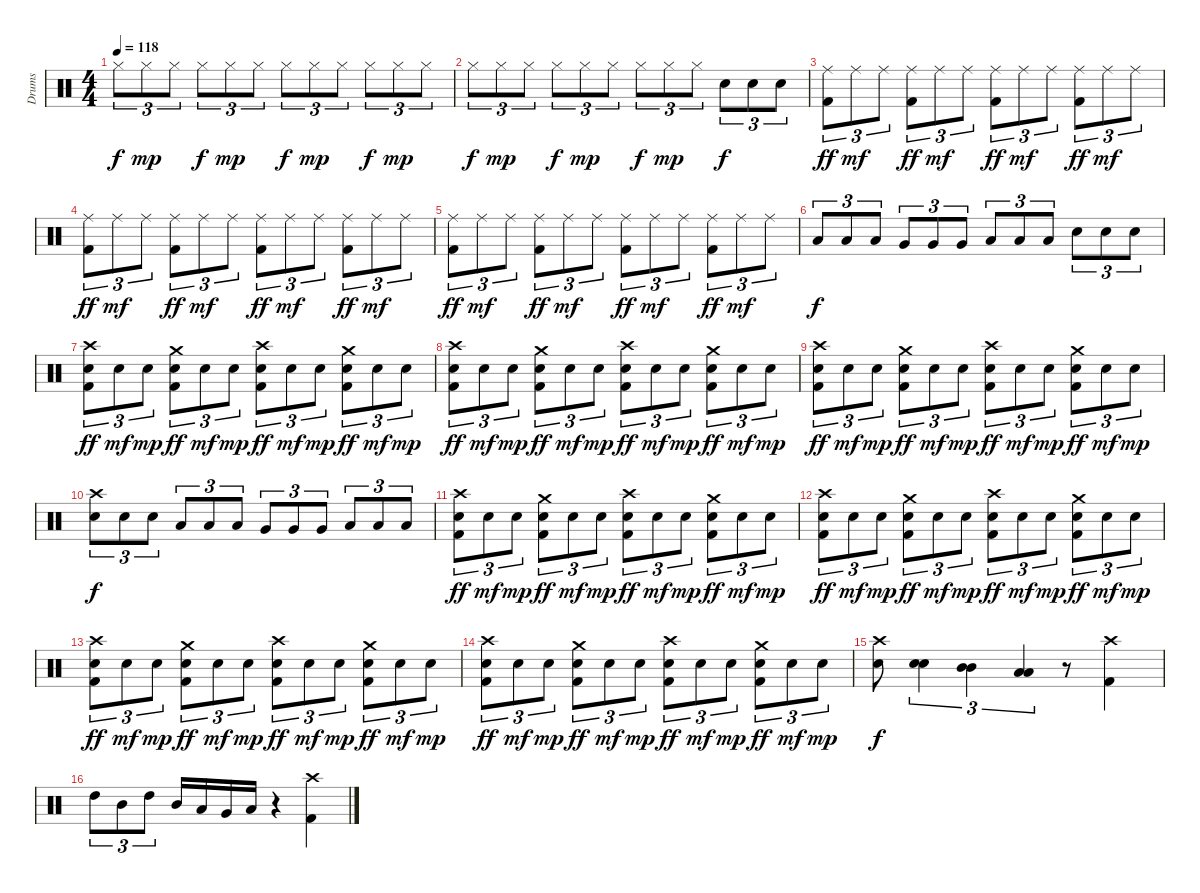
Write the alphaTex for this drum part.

\track ("Drums" "Drums") {instrument percussion}
\staff {score}
\articulation defaults
\ts (4 4)
\tempo 118
\clef neutral
\ks c "Hi-Hat (closed)".8{tu (3 2) dy f} "Hi-Hat (closed)".8{tu (3 2) dy mp} "Hi-Hat (closed)".8{tu (3 2)} "Hi-Hat (closed)".8{tu (3 2) dy f} "Hi-Hat (closed)".8{tu (3 2) dy mp} "Hi-Hat (closed)".8{tu (3 2)} "Hi-Hat (closed)".8{tu (3 2) dy f} "Hi-Hat (closed)".8{tu (3 2) dy mp} "Hi-Hat (closed)".8{tu (3 2)} "Hi-Hat (closed)".8{tu (3 2) dy f} "Hi-Hat (closed)".8{tu (3 2) dy mp} "Hi-Hat (closed)".8{tu (3 2)}
|
"Hi-Hat (closed)".8{tu (3 2) dy f} "Hi-Hat (closed)".8{tu (3 2) dy mp} "Hi-Hat (closed)".8{tu (3 2)} "Hi-Hat (closed)".8{tu (3 2) dy f} "Hi-Hat (closed)".8{tu (3 2) dy mp} "Hi-Hat (closed)".8{tu (3 2)} "Hi-Hat (closed)".8{tu (3 2) dy f} "Hi-Hat (closed)".8{tu (3 2) dy mp} "Hi-Hat (closed)".8{tu (3 2)} "Snare (hit) 2".8{tu (3 2) dy f} "Snare (hit) 2".8{tu (3 2)} "Snare (hit) 2".8{tu (3 2)} |
("Ride (middle)" "Kick (hit) 2").8{tu (3 2) dy ff} "Ride (middle)".8{tu (3 2) dy mf} "Ride (middle)".8{tu (3 2)} ("Ride (middle)" "Kick (hit) 2").8{tu (3 2) dy ff} "Ride (middle)".8{tu (3 2) dy mf} "Ride (middle)".8{tu (3 2)} ("Ride (middle)" "Kick (hit) 2").8{tu (3 2) dy ff} "Ride (middle)".8{tu (3 2) dy mf} "Ride (middle)".8{tu (3 2)} ("Ride (middle)" "Kick (hit) 2").8{tu (3 2) dy ff} "Ride (middle)".8{tu (3 2) dy mf} "Ride (middle)".8{tu (3 2)} |
("Ride (middle)" "Kick (hit) 2").8{tu (3 2) dy ff} "Ride (middle)".8{tu (3 2) dy mf} "Ride (middle)".8{tu (3 2)} ("Ride (middle)" "Kick (hit) 2").8{tu (3 2) dy ff} "Ride (middle)".8{tu (3 2) dy mf} "Ride (middle)".8{tu (3 2)} ("Ride (middle)" "Kick (hit) 2").8{tu (3 2) dy ff} "Ride (middle)".8{tu (3 2) dy mf} "Ride (middle)".8{tu (3 2)} ("Ride (middle)" "Kick (hit) 2").8{tu (3 2) dy ff} "Ride (middle)".8{tu (3 2) dy mf} "Ride (middle)".8{tu (3 2)} |
("Ride (middle)" "Kick (hit) 2").8{tu (3 2) dy ff} "Ride (middle)".8{tu (3 2) dy mf} "Ride (middle)".8{tu (3 2)} ("Ride (middle)" "Kick (hit) 2").8{tu (3 2) dy ff} "Ride (middle)".8{tu (3 2) dy mf} "Ride (middle)".8{tu (3 2)} ("Ride (middle)" "Kick (hit) 2").8{tu (3 2) dy ff} "Ride (middle)".8{tu (3 2) dy mf} "Ride (middle)".8{tu (3 2)} ("Ride (middle)" "Kick (hit) 2").8{tu (3 2) dy ff} "Ride (middle)".8{tu (3 2) dy mf} "Ride (middle)".8{tu (3 2)} |
"Low Tom (hit)".8{tu (3 2) dy f} "Low Tom (hit)".8{tu (3 2)} "Low Tom (hit)".8{tu (3 2)} "Very Low Tom (hit)".8{tu (3 2)} "Very Low Tom (hit)".8{tu (3 2)} "Very Low Tom (hit)".8{tu (3 2)} "Low Floor Tom (hit)".8{tu (3 2)} "Low Floor Tom (hit)".8{tu (3 2)} "Low Floor Tom (hit)".8{tu (3 2)} "Snare (hit) 2".8{tu (3 2)} "Snare (hit) 2".8{tu (3 2)} "Snare (hit) 2".8{tu (3 2)} |
("Crash high (hit)" "Snare (hit) 2" "Kick (hit) 2").8{tu (3 2) dy ff} "Snare (hit) 2".8{tu (3 2) dy mf} "Snare (hit) 2".8{tu (3 2) dy mp} ("Crash medium (hit)" "Snare (hit) 2" "Kick (hit) 2").8{tu (3 2) dy ff} "Snare (hit) 2".8{tu (3 2) dy mf} "Snare (hit) 2".8{tu (3 2) dy mp} ("Crash high (hit)" "Snare (hit) 2" "Kick (hit) 2").8{tu (3 2) dy ff} "Snare (hit) 2".8{tu (3 2) dy mf} "Snare (hit) 2".8{tu (3 2) dy mp} ("Crash medium (hit)" "Snare (hit) 2" "Kick (hit) 2").8{tu (3 2) dy ff} "Snare (hit) 2".8{tu (3 2) dy mf} "Snare (hit) 2".8{tu (3 2) dy mp} |
("Crash high (hit)" "Snare (hit) 2" "Kick (hit) 2").8{tu (3 2) dy ff} "Snare (hit) 2".8{tu (3 2) dy mf} "Snare (hit) 2".8{tu (3 2) dy mp} ("Crash medium (hit)" "Snare (hit) 2" "Kick (hit) 2").8{tu (3 2) dy ff} "Snare (hit) 2".8{tu (3 2) dy mf} "Snare (hit) 2".8{tu (3 2) dy mp} ("Crash high (hit)" "Snare (hit) 2" "Kick (hit) 2").8{tu (3 2) dy ff} "Snare (hit) 2".8{tu (3 2) dy mf} "Snare (hit) 2".8{tu (3 2) dy mp} ("Crash medium (hit)" "Snare (hit) 2" "Kick (hit) 2").8{tu (3 2) dy ff} "Snare (hit) 2".8{tu (3 2) dy mf} "Snare (hit) 2".8{tu (3 2) dy mp} |
("Crash high (hit)" "Snare (hit) 2" "Kick (hit) 2").8{tu (3 2) dy ff} "Snare (hit) 2".8{tu (3 2) dy mf} "Snare (hit) 2".8{tu (3 2) dy mp} ("Crash medium (hit)" "Snare (hit) 2" "Kick (hit) 2").8{tu (3 2) dy ff} "Snare (hit) 2".8{tu (3 2) dy mf} "Snare (hit) 2".8{tu (3 2) dy mp} ("Crash high (hit)" "Snare (hit) 2" "Kick (hit) 2").8{tu (3 2) dy ff} "Snare (hit) 2".8{tu (3 2) dy mf} "Snare (hit) 2".8{tu (3 2) dy mp} ("Crash medium (hit)" "Snare (hit) 2" "Kick (hit) 2").8{tu (3 2) dy ff} "Snare (hit) 2".8{tu (3 2) dy mf} "Snare (hit) 2".8{tu (3 2) dy mp} |
("Crash high (hit)" "Snare (hit) 2").8{tu (3 2) dy f} "Snare (hit) 2".8{tu (3 2)} "Snare (hit) 2".8{tu (3 2)} "Low Tom (hit)".8{tu (3 2)} "Low Tom (hit)".8{tu (3 2)} "Low Tom (hit)".8{tu (3 2)} "Very Low Tom (hit)".8{tu (3 2)} "Very Low Tom (hit)".8{tu (3 2)} "Very Low Tom (hit)".8{tu (3 2)} "Low Floor Tom (hit)".8{tu (3 2)} "Low Floor Tom (hit)".8{tu (3 2)} "Low Floor Tom (hit)".8{tu (3 2)} |
("Crash high (hit)" "Snare (hit) 2" "Kick (hit) 2").8{tu (3 2) dy ff} "Snare (hit) 2".8{tu (3 2) dy mf} "Snare (hit) 2".8{tu (3 2) dy mp} ("Crash medium (hit)" "Snare (hit) 2" "Kick (hit) 2").8{tu (3 2) dy ff} "Snare (hit) 2".8{tu (3 2) dy mf} "Snare (hit) 2".8{tu (3 2) dy mp} ("Crash high (hit)" "Snare (hit) 2" "Kick (hit) 2").8{tu (3 2) dy ff} "Snare (hit) 2".8{tu (3 2) dy mf} "Snare (hit) 2".8{tu (3 2) dy mp} ("Crash medium (hit)" "Snare (hit) 2" "Kick (hit) 2").8{tu (3 2) dy ff} "Snare (hit) 2".8{tu (3 2) dy mf} "Snare (hit) 2".8{tu (3 2) dy mp} |
("Crash high (hit)" "Snare (hit) 2" "Kick (hit) 2").8{tu (3 2) dy ff} "Snare (hit) 2".8{tu (3 2) dy mf} "Snare (hit) 2".8{tu (3 2) dy mp} ("Crash medium (hit)" "Snare (hit) 2" "Kick (hit) 2").8{tu (3 2) dy ff} "Snare (hit) 2".8{tu (3 2) dy mf} "Snare (hit) 2".8{tu (3 2) dy mp} ("Crash high (hit)" "Snare (hit) 2" "Kick (hit) 2").8{tu (3 2) dy ff} "Snare (hit) 2".8{tu (3 2) dy mf} "Snare (hit) 2".8{tu (3 2) dy mp} ("Crash medium (hit)" "Snare (hit) 2" "Kick (hit) 2").8{tu (3 2) dy ff} "Snare (hit) 2".8{tu (3 2) dy mf} "Snare (hit) 2".8{tu (3 2) dy mp} |
("Crash high (hit)" "Snare (hit) 2" "Kick (hit) 2").8{tu (3 2) dy ff} "Snare (hit) 2".8{tu (3 2) dy mf} "Snare (hit) 2".8{tu (3 2) dy mp} ("Crash medium (hit)" "Snare (hit) 2" "Kick (hit) 2").8{tu (3 2) dy ff} "Snare (hit) 2".8{tu (3 2) dy mf} "Snare (hit) 2".8{tu (3 2) dy mp} ("Crash high (hit)" "Snare (hit) 2" "Kick (hit) 2").8{tu (3 2) dy ff} "Snare (hit) 2".8{tu (3 2) dy mf} "Snare (hit) 2".8{tu (3 2) dy mp} ("Crash medium (hit)" "Snare (hit) 2" "Kick (hit) 2").8{tu (3 2) dy ff} "Snare (hit) 2".8{tu (3 2) dy mf} "Snare (hit) 2".8{tu (3 2) dy mp} |
("Crash high (hit)" "Snare (hit) 2" "Kick (hit) 2").8{tu (3 2) dy ff} "Snare (hit) 2".8{tu (3 2) dy mf} "Snare (hit) 2".8{tu (3 2) dy mp} ("Crash medium (hit)" "Snare (hit) 2" "Kick (hit) 2").8{tu (3 2) dy ff} "Snare (hit) 2".8{tu (3 2) dy mf} "Snare (hit) 2".8{tu (3 2) dy mp} ("Crash high (hit)" "Snare (hit) 2" "Kick (hit) 2").8{tu (3 2) dy ff} "Snare (hit) 2".8{tu (3 2) dy mf} "Snare (hit) 2".8{tu (3 2) dy mp} ("Crash medium (hit)" "Snare (hit) 2" "Kick (hit) 2").8{tu (3 2) dy ff} "Snare (hit) 2".8{tu (3 2) dy mf} "Snare (hit) 2".8{tu (3 2) dy mp} |
("Crash high (hit)" "Snare (hit) 2").8{dy f} ("Snare (hit) 2" "Snare (hit) 2").4{tu (3 2)} ("Mid Tom (hit)" "Mid Tom (hit)").4{tu (3 2)} ("Low Tom (hit)" "Low Tom (hit)").4{tu (3 2)} r.8 ("Crash high (hit)" "Kick (hit) 2").4 |
"High Tom (hit)".8{tu (3 2)} "Mid Tom (hit)".8{tu (3 2)} "High Tom (hit)".8{tu (3 2)} "Mid Tom (hit)".16 "Low Tom (hit)".16 "Very Low Tom (hit)".16 "Low Floor Tom (hit)".16 r.4 ("Crash high (hit)" "Kick (hit) 2").4
